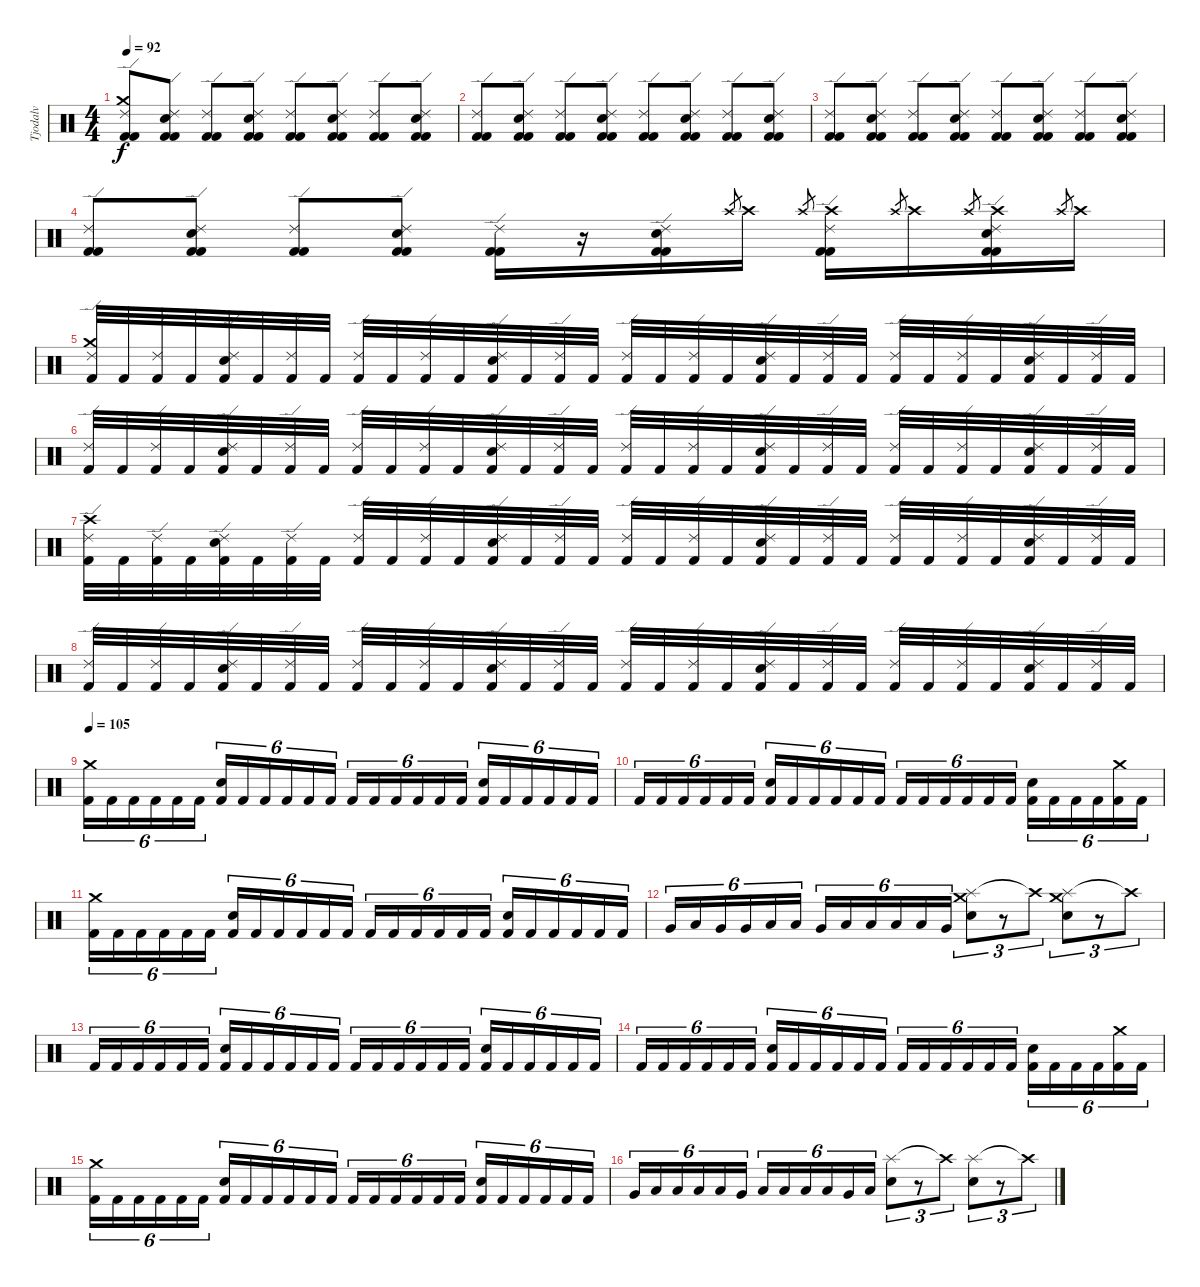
\track ("Tjodalv" "Tjodalv") {instrument percussion}
\staff {score}
\articulation defaults
\ts (4 4)
\tempo 92
\clef neutral
\ks c
("Kick (hit) 2" "Kick (hit) 2" "Crash medium (hit)" "Ride (edge) 2").8{dy f} ("Kick (hit) 2" "Kick (hit) 2" "Snare (hit) 2" "Ride (edge) 2").8 ("Kick (hit) 2" "Kick (hit) 2" "Ride (edge) 2").8 ("Kick (hit) 2" "Kick (hit) 2" "Snare (hit) 2" "Ride (edge) 2").8 ("Kick (hit) 2" "Kick (hit) 2" "Ride (edge) 2").8 ("Kick (hit) 2" "Kick (hit) 2" "Snare (hit) 2" "Ride (edge) 2").8 ("Kick (hit) 2" "Kick (hit) 2" "Ride (edge) 2").8 ("Kick (hit) 2" "Kick (hit) 2" "Snare (hit) 2" "Ride (edge) 2").8 |
("Kick (hit) 2" "Kick (hit) 2" "Ride (edge) 2").8 ("Kick (hit) 2" "Kick (hit) 2" "Snare (hit) 2" "Ride (edge) 2").8 ("Kick (hit) 2" "Kick (hit) 2" "Ride (edge) 2").8 ("Kick (hit) 2" "Kick (hit) 2" "Snare (hit) 2" "Ride (edge) 2").8 ("Kick (hit) 2" "Kick (hit) 2" "Ride (edge) 2").8 ("Kick (hit) 2" "Kick (hit) 2" "Snare (hit) 2" "Ride (edge) 2").8 ("Kick (hit) 2" "Kick (hit) 2" "Ride (edge) 2").8 ("Kick (hit) 2" "Kick (hit) 2" "Snare (hit) 2" "Ride (edge) 2").8 |
("Kick (hit) 2" "Kick (hit) 2" "Ride (edge) 2").8 ("Kick (hit) 2" "Kick (hit) 2" "Snare (hit) 2" "Ride (edge) 2").8 ("Kick (hit) 2" "Kick (hit) 2" "Ride (edge) 2").8 ("Kick (hit) 2" "Kick (hit) 2" "Snare (hit) 2" "Ride (edge) 2").8 ("Kick (hit) 2" "Kick (hit) 2" "Ride (edge) 2").8 ("Kick (hit) 2" "Kick (hit) 2" "Snare (hit) 2" "Ride (edge) 2").8 ("Kick (hit) 2" "Kick (hit) 2" "Ride (edge) 2").8 ("Kick (hit) 2" "Kick (hit) 2" "Snare (hit) 2" "Ride (edge) 2").8 |
("Kick (hit) 2" "Kick (hit) 2" "Ride (edge) 2").8 ("Kick (hit) 2" "Kick (hit) 2" "Snare (hit) 2" "Ride (edge) 2").8 ("Kick (hit) 2" "Kick (hit) 2" "Ride (edge) 2").8 ("Kick (hit) 2" "Kick (hit) 2" "Snare (hit) 2" "Ride (edge) 2").8 ("Kick (hit) 2" "Kick (hit) 2" "Ride (edge) 2").16 r.16 ("Kick (hit) 2" "Kick (hit) 2" "Snare (hit) 2" "Ride (edge) 2").16 "Crash high (hit)".8{gr} "Crash high (hit)".16 "Crash high (hit)".8{gr} ("Kick (hit) 2" "Kick (hit) 2" "Crash high (hit)" "Ride (edge) 2").16 "Crash high (hit)".8{gr} "Crash high (hit)".16 "Crash high (hit)".8{gr} ("Kick (hit) 2" "Kick (hit) 2" "Snare (hit) 2" "Crash high (hit)" "Ride (edge) 2").16 "Crash high (hit)".8{gr} "Crash high (hit)".16 |
("Kick (hit) 2" "Crash medium (hit)" "Ride (edge) 2").32 "Kick (hit) 2".32 ("Kick (hit) 2" "Ride (edge) 2").32 "Kick (hit) 2".32 ("Kick (hit) 2" "Snare (hit) 2" "Ride (edge) 2").32 "Kick (hit) 2".32 ("Kick (hit) 2" "Ride (edge) 2").32 "Kick (hit) 2".32 ("Kick (hit) 2" "Ride (edge) 2").32 "Kick (hit) 2".32 ("Kick (hit) 2" "Ride (edge) 2").32 "Kick (hit) 2".32 ("Kick (hit) 2" "Snare (hit) 2" "Ride (edge) 2").32 "Kick (hit) 2".32 ("Kick (hit) 2" "Ride (edge) 2").32 "Kick (hit) 2".32 ("Kick (hit) 2" "Ride (edge) 2").32 "Kick (hit) 2".32 ("Kick (hit) 2" "Ride (edge) 2").32 "Kick (hit) 2".32 ("Kick (hit) 2" "Snare (hit) 2" "Ride (edge) 2").32 "Kick (hit) 2".32 ("Kick (hit) 2" "Ride (edge) 2").32 "Kick (hit) 2".32 ("Kick (hit) 2" "Ride (edge) 2").32 "Kick (hit) 2".32 ("Kick (hit) 2" "Ride (edge) 2").32 "Kick (hit) 2".32 ("Kick (hit) 2" "Snare (hit) 2" "Ride (edge) 2").32 "Kick (hit) 2".32 ("Kick (hit) 2" "Ride (edge) 2").32 "Kick (hit) 2".32 |
("Kick (hit) 2" "Ride (edge) 2").32 "Kick (hit) 2".32 ("Kick (hit) 2" "Ride (edge) 2").32 "Kick (hit) 2".32 ("Kick (hit) 2" "Snare (hit) 2" "Ride (edge) 2").32 "Kick (hit) 2".32 ("Kick (hit) 2" "Ride (edge) 2").32 "Kick (hit) 2".32 ("Kick (hit) 2" "Ride (edge) 2").32 "Kick (hit) 2".32 ("Kick (hit) 2" "Ride (edge) 2").32 "Kick (hit) 2".32 ("Kick (hit) 2" "Snare (hit) 2" "Ride (edge) 2").32 "Kick (hit) 2".32 ("Kick (hit) 2" "Ride (edge) 2").32 "Kick (hit) 2".32 ("Kick (hit) 2" "Ride (edge) 2").32 "Kick (hit) 2".32 ("Kick (hit) 2" "Ride (edge) 2").32 "Kick (hit) 2".32 ("Kick (hit) 2" "Snare (hit) 2" "Ride (edge) 2").32 "Kick (hit) 2".32 ("Kick (hit) 2" "Ride (edge) 2").32 "Kick (hit) 2".32 ("Kick (hit) 2" "Ride (edge) 2").32 "Kick (hit) 2".32 ("Kick (hit) 2" "Ride (edge) 2").32 "Kick (hit) 2".32 ("Kick (hit) 2" "Snare (hit) 2" "Ride (edge) 2").32 "Kick (hit) 2".32 ("Kick (hit) 2" "Ride (edge) 2").32 "Kick (hit) 2".32 |
("Kick (hit) 2" "Crash high (hit)" "Ride (edge) 2").32 "Kick (hit) 2".32 ("Kick (hit) 2" "Ride (edge) 2").32 "Kick (hit) 2".32 ("Kick (hit) 2" "Snare (hit) 2" "Ride (edge) 2").32 "Kick (hit) 2".32 ("Kick (hit) 2" "Ride (edge) 2").32 "Kick (hit) 2".32 ("Kick (hit) 2" "Ride (edge) 2").32 "Kick (hit) 2".32 ("Kick (hit) 2" "Ride (edge) 2").32 "Kick (hit) 2".32 ("Kick (hit) 2" "Snare (hit) 2" "Ride (edge) 2").32 "Kick (hit) 2".32 ("Kick (hit) 2" "Ride (edge) 2").32 "Kick (hit) 2".32 ("Kick (hit) 2" "Ride (edge) 2").32 "Kick (hit) 2".32 ("Kick (hit) 2" "Ride (edge) 2").32 "Kick (hit) 2".32 ("Kick (hit) 2" "Snare (hit) 2" "Ride (edge) 2").32 "Kick (hit) 2".32 ("Kick (hit) 2" "Ride (edge) 2").32 "Kick (hit) 2".32 ("Kick (hit) 2" "Ride (edge) 2").32 "Kick (hit) 2".32 ("Kick (hit) 2" "Ride (edge) 2").32 "Kick (hit) 2".32 ("Kick (hit) 2" "Snare (hit) 2" "Ride (edge) 2").32 "Kick (hit) 2".32 ("Kick (hit) 2" "Ride (edge) 2").32 "Kick (hit) 2".32 |
("Kick (hit) 2" "Ride (edge) 2").32 "Kick (hit) 2".32 ("Kick (hit) 2" "Ride (edge) 2").32 "Kick (hit) 2".32 ("Kick (hit) 2" "Snare (hit) 2" "Ride (edge) 2").32 "Kick (hit) 2".32 ("Kick (hit) 2" "Ride (edge) 2").32 "Kick (hit) 2".32 ("Kick (hit) 2" "Ride (edge) 2").32 "Kick (hit) 2".32 ("Kick (hit) 2" "Ride (edge) 2").32 "Kick (hit) 2".32 ("Kick (hit) 2" "Snare (hit) 2" "Ride (edge) 2").32 "Kick (hit) 2".32 ("Kick (hit) 2" "Ride (edge) 2").32 "Kick (hit) 2".32 ("Kick (hit) 2" "Ride (edge) 2").32 "Kick (hit) 2".32 ("Kick (hit) 2" "Ride (edge) 2").32 "Kick (hit) 2".32 ("Kick (hit) 2" "Snare (hit) 2" "Ride (edge) 2").32 "Kick (hit) 2".32 ("Kick (hit) 2" "Ride (edge) 2").32 "Kick (hit) 2".32 ("Kick (hit) 2" "Ride (edge) 2").32 "Kick (hit) 2".32 ("Kick (hit) 2" "Ride (edge) 2").32 "Kick (hit) 2".32 ("Kick (hit) 2" "Snare (hit) 2" "Ride (edge) 2").32 "Kick (hit) 2".32 ("Kick (hit) 2" "Ride (edge) 2").32 "Kick (hit) 2".32 |
\tempo 105
("Kick (hit) 2" "Crash medium (hit)").16{tu (6 4)} "Kick (hit) 2".16{tu (6 4)} "Kick (hit) 2".16{tu (6 4)} "Kick (hit) 2".16{tu (6 4)} "Kick (hit) 2".16{tu (6 4)} "Kick (hit) 2".16{tu (6 4)} ("Kick (hit) 2" "Snare (hit) 2").16{tu (6 4)} "Kick (hit) 2".16{tu (6 4)} "Kick (hit) 2".16{tu (6 4)} "Kick (hit) 2".16{tu (6 4)} "Kick (hit) 2".16{tu (6 4)} "Kick (hit) 2".16{tu (6 4)} "Kick (hit) 2".16{tu (6 4)} "Kick (hit) 2".16{tu (6 4)} "Kick (hit) 2".16{tu (6 4)} "Kick (hit) 2".16{tu (6 4)} "Kick (hit) 2".16{tu (6 4)} "Kick (hit) 2".16{tu (6 4)} ("Kick (hit) 2" "Snare (hit) 2").16{tu (6 4)} "Kick (hit) 2".16{tu (6 4)} "Kick (hit) 2".16{tu (6 4)} "Kick (hit) 2".16{tu (6 4)} "Kick (hit) 2".16{tu (6 4)} "Kick (hit) 2".16{tu (6 4)} |
"Kick (hit) 2".16{tu (6 4)} "Kick (hit) 2".16{tu (6 4)} "Kick (hit) 2".16{tu (6 4)} "Kick (hit) 2".16{tu (6 4)} "Kick (hit) 2".16{tu (6 4)} "Kick (hit) 2".16{tu (6 4)} ("Kick (hit) 2" "Snare (hit) 2").16{tu (6 4)} "Kick (hit) 2".16{tu (6 4)} "Kick (hit) 2".16{tu (6 4)} "Kick (hit) 2".16{tu (6 4)} "Kick (hit) 2".16{tu (6 4)} "Kick (hit) 2".16{tu (6 4)} "Kick (hit) 2".16{tu (6 4)} "Kick (hit) 2".16{tu (6 4)} "Kick (hit) 2".16{tu (6 4)} "Kick (hit) 2".16{tu (6 4)} "Kick (hit) 2".16{tu (6 4)} "Kick (hit) 2".16{tu (6 4)} ("Kick (hit) 2" "Snare (hit) 2").16{tu (6 4)} "Kick (hit) 2".16{tu (6 4)} "Kick (hit) 2".16{tu (6 4)} "Kick (hit) 2".16{tu (6 4)} ("Kick (hit) 2" "Crash medium (hit)").16{tu (6 4)} "Kick (hit) 2".16{tu (6 4)} |
("Kick (hit) 2" "Crash medium (hit)").16{tu (6 4)} "Kick (hit) 2".16{tu (6 4)} "Kick (hit) 2".16{tu (6 4)} "Kick (hit) 2".16{tu (6 4)} "Kick (hit) 2".16{tu (6 4)} "Kick (hit) 2".16{tu (6 4)} ("Kick (hit) 2" "Snare (hit) 2").16{tu (6 4)} "Kick (hit) 2".16{tu (6 4)} "Kick (hit) 2".16{tu (6 4)} "Kick (hit) 2".16{tu (6 4)} "Kick (hit) 2".16{tu (6 4)} "Kick (hit) 2".16{tu (6 4)} "Kick (hit) 2".16{tu (6 4)} "Kick (hit) 2".16{tu (6 4)} "Kick (hit) 2".16{tu (6 4)} "Kick (hit) 2".16{tu (6 4)} "Kick (hit) 2".16{tu (6 4)} "Kick (hit) 2".16{tu (6 4)} ("Kick (hit) 2" "Snare (hit) 2").16{tu (6 4)} "Kick (hit) 2".16{tu (6 4)} "Kick (hit) 2".16{tu (6 4)} "Kick (hit) 2".16{tu (6 4)} "Kick (hit) 2".16{tu (6 4)} "Kick (hit) 2".16{tu (6 4)} |
"Very Low Tom (hit)".16{tu (6 4)} "Low Tom (hit)".16{tu (6 4)} "Very Low Tom (hit)".16{tu (6 4)} "Very Low Tom (hit)".16{tu (6 4)} "Low Tom (hit)".16{tu (6 4)} "Low Floor Tom (hit)".16{tu (6 4)} "Very Low Tom (hit)".16{tu (6 4)} "Low Floor Tom (hit)".16{tu (6 4)} "Low Tom (hit)".16{tu (6 4)} "Low Tom (hit)".16{tu (6 4)} "Low Floor Tom (hit)".16{tu (6 4)} "Very Low Tom (hit)".16{tu (6 4)} ("Splash (hit)" "Snare (hit) 2" "Crash medium (hit)").8{tu (3 2)} r.8{tu (3 2)} "Crash high (hit)"{t}.8{tu (3 2)} ("Splash (hit)" "Snare (hit) 2" "Crash medium (hit)").8{tu (3 2)} r.8{tu (3 2)} "Crash high (hit)"{t}.8{tu (3 2)} |
"Kick (hit) 2".16{tu (6 4)} "Kick (hit) 2".16{tu (6 4)} "Kick (hit) 2".16{tu (6 4)} "Kick (hit) 2".16{tu (6 4)} "Kick (hit) 2".16{tu (6 4)} "Kick (hit) 2".16{tu (6 4)} ("Kick (hit) 2" "Snare (hit) 2").16{tu (6 4)} "Kick (hit) 2".16{tu (6 4)} "Kick (hit) 2".16{tu (6 4)} "Kick (hit) 2".16{tu (6 4)} "Kick (hit) 2".16{tu (6 4)} "Kick (hit) 2".16{tu (6 4)} "Kick (hit) 2".16{tu (6 4)} "Kick (hit) 2".16{tu (6 4)} "Kick (hit) 2".16{tu (6 4)} "Kick (hit) 2".16{tu (6 4)} "Kick (hit) 2".16{tu (6 4)} "Kick (hit) 2".16{tu (6 4)} ("Kick (hit) 2" "Snare (hit) 2").16{tu (6 4)} "Kick (hit) 2".16{tu (6 4)} "Kick (hit) 2".16{tu (6 4)} "Kick (hit) 2".16{tu (6 4)} "Kick (hit) 2".16{tu (6 4)} "Kick (hit) 2".16{tu (6 4)} |
"Kick (hit) 2".16{tu (6 4)} "Kick (hit) 2".16{tu (6 4)} "Kick (hit) 2".16{tu (6 4)} "Kick (hit) 2".16{tu (6 4)} "Kick (hit) 2".16{tu (6 4)} "Kick (hit) 2".16{tu (6 4)} ("Kick (hit) 2" "Snare (hit) 2").16{tu (6 4)} "Kick (hit) 2".16{tu (6 4)} "Kick (hit) 2".16{tu (6 4)} "Kick (hit) 2".16{tu (6 4)} "Kick (hit) 2".16{tu (6 4)} "Kick (hit) 2".16{tu (6 4)} "Kick (hit) 2".16{tu (6 4)} "Kick (hit) 2".16{tu (6 4)} "Kick (hit) 2".16{tu (6 4)} "Kick (hit) 2".16{tu (6 4)} "Kick (hit) 2".16{tu (6 4)} "Kick (hit) 2".16{tu (6 4)} ("Kick (hit) 2" "Snare (hit) 2").16{tu (6 4)} "Kick (hit) 2".16{tu (6 4)} "Kick (hit) 2".16{tu (6 4)} "Kick (hit) 2".16{tu (6 4)} ("Kick (hit) 2" "Crash medium (hit)").16{tu (6 4)} "Kick (hit) 2".16{tu (6 4)} |
("Kick (hit) 2" "Crash medium (hit)").16{tu (6 4)} "Kick (hit) 2".16{tu (6 4)} "Kick (hit) 2".16{tu (6 4)} "Kick (hit) 2".16{tu (6 4)} "Kick (hit) 2".16{tu (6 4)} "Kick (hit) 2".16{tu (6 4)} ("Kick (hit) 2" "Snare (hit) 2").16{tu (6 4)} "Kick (hit) 2".16{tu (6 4)} "Kick (hit) 2".16{tu (6 4)} "Kick (hit) 2".16{tu (6 4)} "Kick (hit) 2".16{tu (6 4)} "Kick (hit) 2".16{tu (6 4)} "Kick (hit) 2".16{tu (6 4)} "Kick (hit) 2".16{tu (6 4)} "Kick (hit) 2".16{tu (6 4)} "Kick (hit) 2".16{tu (6 4)} "Kick (hit) 2".16{tu (6 4)} "Kick (hit) 2".16{tu (6 4)} ("Kick (hit) 2" "Snare (hit) 2").16{tu (6 4)} "Kick (hit) 2".16{tu (6 4)} "Kick (hit) 2".16{tu (6 4)} "Kick (hit) 2".16{tu (6 4)} "Kick (hit) 2".16{tu (6 4)} "Kick (hit) 2".16{tu (6 4)} |
"Very Low Tom (hit)".16{tu (6 4)} "Low Floor Tom (hit)".16{tu (6 4)} "Low Tom (hit)".16{tu (6 4)} "Low Tom (hit)".16{tu (6 4)} "Low Tom (hit)".16{tu (6 4)} "Very Low Tom (hit)".16{tu (6 4)} "Low Floor Tom (hit)".16{tu (6 4)} "Low Tom (hit)".16{tu (6 4)} "Low Tom (hit)".16{tu (6 4)} "Low Tom (hit)".16{tu (6 4)} "Very Low Tom (hit)".16{tu (6 4)} "Low Tom (hit)".16{tu (6 4)} ("Splash (hit)" "Snare (hit) 2").8{tu (3 2)} r.8{tu (3 2)} "Crash high (hit)"{t}.8{tu (3 2)} ("Splash (hit)" "Snare (hit) 2").8{tu (3 2)} r.8{tu (3 2)} "Crash high (hit)"{t}.8{tu (3 2)}
